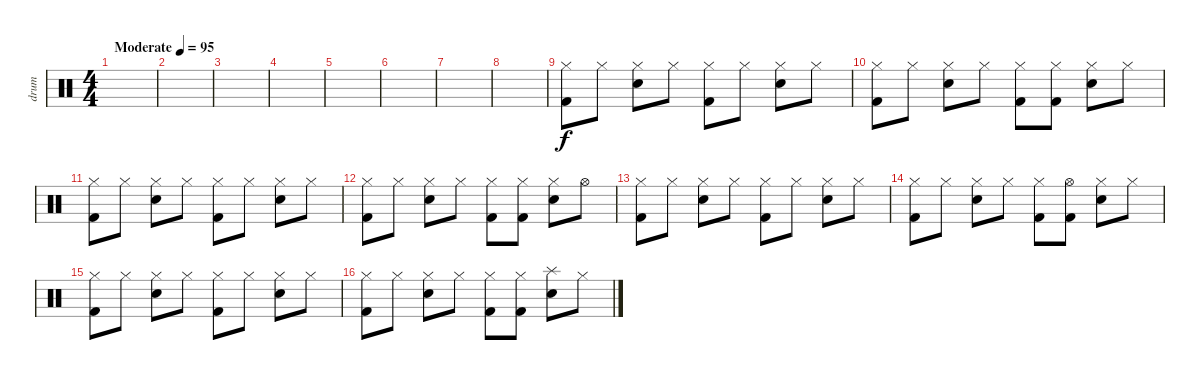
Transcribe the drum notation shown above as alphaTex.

\track ("drum" "drum") {instrument percussion}
\staff {score}
\articulation defaults
\ts (4 4)
\tempo (95 "Moderate")
\clef neutral
\ks c
|
|
|
|
|
|
|
|
("Hi-Hat (closed)" "Kick (hit) 2").8 "Hi-Hat (closed)".8 ("Hi-Hat (closed)" "Electric Snare (hit)").8 "Hi-Hat (closed)".8 ("Hi-Hat (closed)" "Kick (hit) 2").8 "Hi-Hat (closed)".8 ("Hi-Hat (closed)" "Electric Snare (hit)").8 "Hi-Hat (closed)".8 |
("Hi-Hat (closed)" "Kick (hit) 2").8 "Hi-Hat (closed)".8 ("Hi-Hat (closed)" "Electric Snare (hit)").8 "Hi-Hat (closed)".8 ("Hi-Hat (closed)" "Kick (hit) 2").8 ("Hi-Hat (closed)" "Kick (hit) 2").8 ("Hi-Hat (closed)" "Electric Snare (hit)").8 "Hi-Hat (closed)".8 |
("Hi-Hat (closed)" "Kick (hit) 2").8 "Hi-Hat (closed)".8 ("Hi-Hat (closed)" "Electric Snare (hit)").8 "Hi-Hat (closed)".8 ("Hi-Hat (closed)" "Kick (hit) 2").8 "Hi-Hat (closed)".8 ("Hi-Hat (closed)" "Electric Snare (hit)").8 "Hi-Hat (closed)".8 |
("Hi-Hat (closed)" "Kick (hit) 2").8 "Hi-Hat (closed)".8 ("Hi-Hat (closed)" "Electric Snare (hit)").8 "Hi-Hat (closed)".8 ("Hi-Hat (closed)" "Kick (hit) 2").8 ("Hi-Hat (closed)" "Kick (hit) 2").8 ("Hi-Hat (closed)" "Electric Snare (hit)").8 "Hi-Hat (open)".8 |
("Hi-Hat (closed)" "Kick (hit) 2").8 "Hi-Hat (closed)".8 ("Hi-Hat (closed)" "Electric Snare (hit)").8 "Hi-Hat (closed)".8 ("Hi-Hat (closed)" "Kick (hit) 2").8 "Hi-Hat (closed)".8 ("Hi-Hat (closed)" "Electric Snare (hit)").8 "Hi-Hat (closed)".8 |
("Hi-Hat (closed)" "Kick (hit) 2").8 "Hi-Hat (closed)".8 ("Hi-Hat (closed)" "Electric Snare (hit)").8 "Hi-Hat (closed)".8 ("Hi-Hat (closed)" "Kick (hit) 2").8 ("Hi-Hat (open)" "Kick (hit) 2").8 ("Hi-Hat (closed)" "Electric Snare (hit)").8 "Hi-Hat (closed)".8 |
("Hi-Hat (closed)" "Kick (hit) 2").8 "Hi-Hat (closed)".8 ("Hi-Hat (closed)" "Electric Snare (hit)").8 "Hi-Hat (closed)".8 ("Hi-Hat (closed)" "Kick (hit) 2").8 "Hi-Hat (closed)".8 ("Hi-Hat (closed)" "Electric Snare (hit)").8 "Hi-Hat (closed)".8 |
("Hi-Hat (closed)" "Kick (hit) 2").8 "Hi-Hat (closed)".8 ("Hi-Hat (closed)" "Electric Snare (hit)").8 "Hi-Hat (closed)".8 ("Hi-Hat (closed)" "Kick (hit) 2").8 ("Hi-Hat (closed)" "Kick (hit) 2").8 ("Splash (hit)" "Electric Snare (hit)").8 "Hi-Hat (closed)".8
